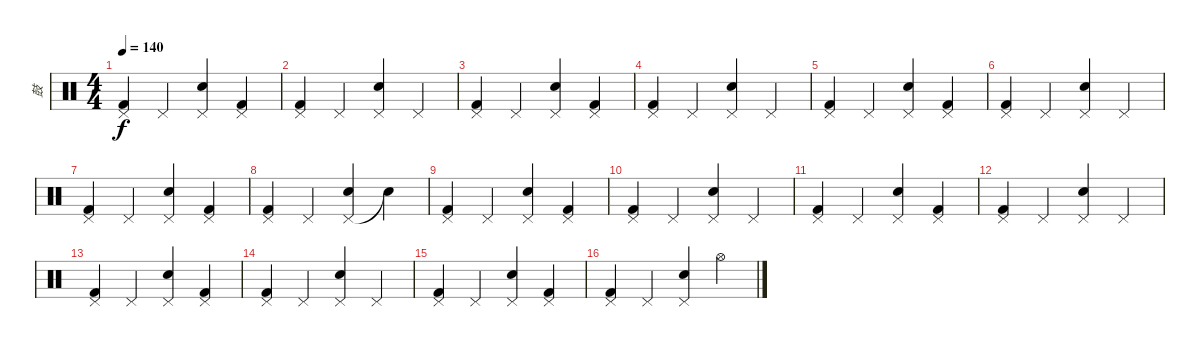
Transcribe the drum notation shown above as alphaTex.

\track ("鼓" "鼓") {instrument percussion}
\staff {score}
\articulation defaults
\ts (4 4)
\tempo 140
\clef neutral
\ks c
("Pedal Hi-Hat (hit)" "Kick (hit) 2").4{dy f} "Pedal Hi-Hat (hit)".4 ("Pedal Hi-Hat (hit)" "Snare (hit) 2").4 ("Pedal Hi-Hat (hit)" "Kick (hit) 2").4 |
("Pedal Hi-Hat (hit)" "Kick (hit) 2").4 "Pedal Hi-Hat (hit)".4 ("Pedal Hi-Hat (hit)" "Snare (hit) 2").4 "Pedal Hi-Hat (hit)".4 |
("Pedal Hi-Hat (hit)" "Kick (hit) 2").4 "Pedal Hi-Hat (hit)".4 ("Pedal Hi-Hat (hit)" "Snare (hit) 2").4 ("Pedal Hi-Hat (hit)" "Kick (hit) 2").4 |
("Pedal Hi-Hat (hit)" "Kick (hit) 2").4 "Pedal Hi-Hat (hit)".4 ("Pedal Hi-Hat (hit)" "Snare (hit) 2").4 "Pedal Hi-Hat (hit)".4 |
("Pedal Hi-Hat (hit)" "Kick (hit) 2").4 "Pedal Hi-Hat (hit)".4 ("Pedal Hi-Hat (hit)" "Snare (hit) 2").4 ("Pedal Hi-Hat (hit)" "Kick (hit) 2").4 |
("Pedal Hi-Hat (hit)" "Kick (hit) 2").4 "Pedal Hi-Hat (hit)".4 ("Pedal Hi-Hat (hit)" "Snare (hit) 2").4 "Pedal Hi-Hat (hit)".4 |
("Pedal Hi-Hat (hit)" "Kick (hit) 2").4 "Pedal Hi-Hat (hit)".4 ("Pedal Hi-Hat (hit)" "Snare (hit) 2").4 ("Pedal Hi-Hat (hit)" "Kick (hit) 2").4 |
("Pedal Hi-Hat (hit)" "Kick (hit) 2").4 "Pedal Hi-Hat (hit)".4 ("Pedal Hi-Hat (hit)" "Snare (hit) 2").4 "Snare (hit)"{t}.4 |
("Pedal Hi-Hat (hit)" "Kick (hit) 2").4 "Pedal Hi-Hat (hit)".4 ("Pedal Hi-Hat (hit)" "Snare (hit) 2").4 ("Pedal Hi-Hat (hit)" "Kick (hit) 2").4 |
("Pedal Hi-Hat (hit)" "Kick (hit) 2").4 "Pedal Hi-Hat (hit)".4 ("Pedal Hi-Hat (hit)" "Snare (hit) 2").4 "Pedal Hi-Hat (hit)".4 |
("Pedal Hi-Hat (hit)" "Kick (hit) 2").4 "Pedal Hi-Hat (hit)".4 ("Pedal Hi-Hat (hit)" "Snare (hit) 2").4 ("Pedal Hi-Hat (hit)" "Kick (hit) 2").4 |
("Pedal Hi-Hat (hit)" "Kick (hit) 2").4 "Pedal Hi-Hat (hit)".4 ("Pedal Hi-Hat (hit)" "Snare (hit) 2").4 "Pedal Hi-Hat (hit)".4 |
("Pedal Hi-Hat (hit)" "Kick (hit) 2").4 "Pedal Hi-Hat (hit)".4 ("Pedal Hi-Hat (hit)" "Snare (hit) 2").4 ("Pedal Hi-Hat (hit)" "Kick (hit) 2").4 |
("Pedal Hi-Hat (hit)" "Kick (hit) 2").4 "Pedal Hi-Hat (hit)".4 ("Pedal Hi-Hat (hit)" "Snare (hit) 2").4 "Pedal Hi-Hat (hit)".4 |
("Pedal Hi-Hat (hit)" "Kick (hit) 2").4 "Pedal Hi-Hat (hit)".4 ("Pedal Hi-Hat (hit)" "Snare (hit) 2").4 ("Pedal Hi-Hat (hit)" "Kick (hit) 2").4 |
("Pedal Hi-Hat (hit)" "Kick (hit) 2").4 "Pedal Hi-Hat (hit)".4 ("Pedal Hi-Hat (hit)" "Snare (hit) 2").4 "Hi-Hat (open)".4
